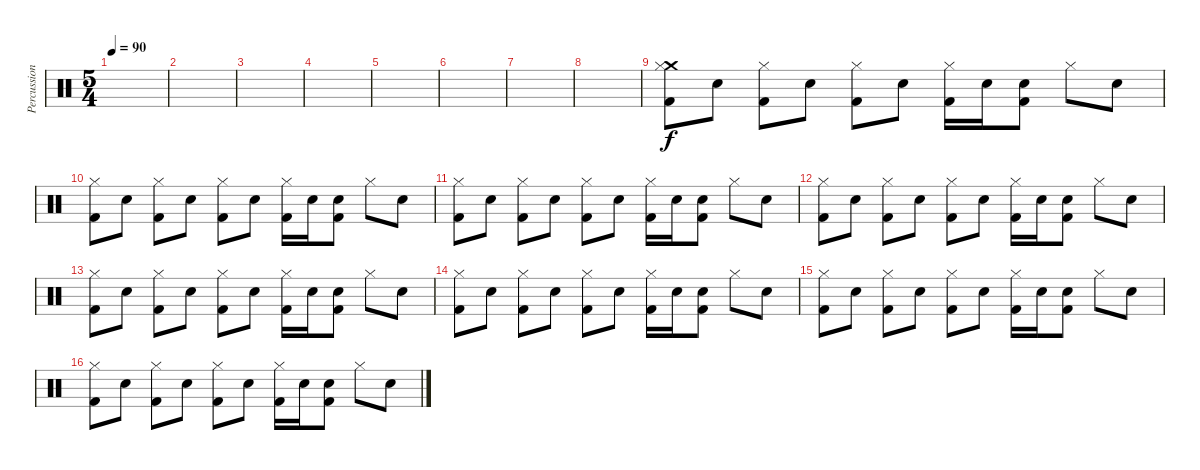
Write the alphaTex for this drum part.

\track ("Percussion" "Percussion") {instrument percussion}
\staff {score}
\articulation defaults
\ts (5 4)
\tempo 90
\clef neutral
\ks c
|
|
|
|
|
|
|
|
("Crash medium (hit)" "Hi-Hat (closed)" "Kick (hit) 2").8 "Snare (hit) 2".8 ("Hi-Hat (closed)" "Kick (hit) 2").8 "Snare (hit) 2".8 ("Hi-Hat (closed)" "Kick (hit) 2").8 "Snare (hit) 2".8 ("Hi-Hat (closed)" "Kick (hit) 2").16 "Snare (hit) 2".16 ("Snare (hit) 2" "Kick (hit) 2").8 "Hi-Hat (closed)".8 "Snare (hit) 2".8 |
("Hi-Hat (closed)" "Kick (hit) 2").8 "Snare (hit) 2".8 ("Hi-Hat (closed)" "Kick (hit) 2").8 "Snare (hit) 2".8 ("Hi-Hat (closed)" "Kick (hit) 2").8 "Snare (hit) 2".8 ("Hi-Hat (closed)" "Kick (hit) 2").16 "Snare (hit) 2".16 ("Snare (hit) 2" "Kick (hit) 2").8 "Hi-Hat (closed)".8 "Snare (hit) 2".8 |
("Hi-Hat (closed)" "Kick (hit) 2").8 "Snare (hit) 2".8 ("Hi-Hat (closed)" "Kick (hit) 2").8 "Snare (hit) 2".8 ("Hi-Hat (closed)" "Kick (hit) 2").8 "Snare (hit) 2".8 ("Hi-Hat (closed)" "Kick (hit) 2").16 "Snare (hit) 2".16 ("Snare (hit) 2" "Kick (hit) 2").8 "Hi-Hat (closed)".8 "Snare (hit) 2".8 |
("Hi-Hat (closed)" "Kick (hit) 2").8 "Snare (hit) 2".8 ("Hi-Hat (closed)" "Kick (hit) 2").8 "Snare (hit) 2".8 ("Hi-Hat (closed)" "Kick (hit) 2").8 "Snare (hit) 2".8 ("Hi-Hat (closed)" "Kick (hit) 2").16 "Snare (hit) 2".16 ("Snare (hit) 2" "Kick (hit) 2").8 "Hi-Hat (closed)".8 "Snare (hit) 2".8 |
("Hi-Hat (closed)" "Kick (hit) 2").8 "Snare (hit) 2".8 ("Hi-Hat (closed)" "Kick (hit) 2").8 "Snare (hit) 2".8 ("Hi-Hat (closed)" "Kick (hit) 2").8 "Snare (hit) 2".8 ("Hi-Hat (closed)" "Kick (hit) 2").16 "Snare (hit) 2".16 ("Snare (hit) 2" "Kick (hit) 2").8 "Hi-Hat (closed)".8 "Snare (hit) 2".8 |
("Hi-Hat (closed)" "Kick (hit) 2").8 "Snare (hit) 2".8 ("Hi-Hat (closed)" "Kick (hit) 2").8 "Snare (hit) 2".8 ("Hi-Hat (closed)" "Kick (hit) 2").8 "Snare (hit) 2".8 ("Hi-Hat (closed)" "Kick (hit) 2").16 "Snare (hit) 2".16 ("Snare (hit) 2" "Kick (hit) 2").8 "Hi-Hat (closed)".8 "Snare (hit) 2".8 |
("Hi-Hat (closed)" "Kick (hit) 2").8 "Snare (hit) 2".8 ("Hi-Hat (closed)" "Kick (hit) 2").8 "Snare (hit) 2".8 ("Hi-Hat (closed)" "Kick (hit) 2").8 "Snare (hit) 2".8 ("Hi-Hat (closed)" "Kick (hit) 2").16 "Snare (hit) 2".16 ("Snare (hit) 2" "Kick (hit) 2").8 "Hi-Hat (closed)".8 "Snare (hit) 2".8 |
("Hi-Hat (closed)" "Kick (hit) 2").8 "Snare (hit) 2".8 ("Hi-Hat (closed)" "Kick (hit) 2").8 "Snare (hit) 2".8 ("Hi-Hat (closed)" "Kick (hit) 2").8 "Snare (hit) 2".8 ("Hi-Hat (closed)" "Kick (hit) 2").16 "Snare (hit) 2".16 ("Snare (hit) 2" "Kick (hit) 2").8 "Hi-Hat (closed)".8 "Snare (hit) 2".8
